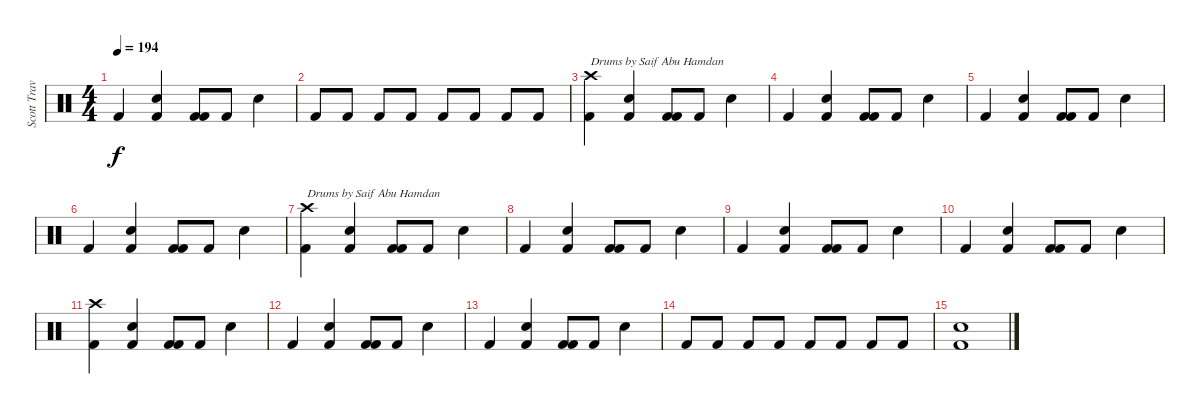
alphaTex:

\track ("Scott Travis" "Scott Trav") {instrument percussion}
\staff {score}
\articulation defaults
\ts (4 4)
\tempo 194
\clef neutral
\ks c "Kick (hit) 2".4{dy f}
("Kick (hit) 2" "Snare (hit) 2").4 ("Kick (hit) 2" "Kick (hit) 2").8 "Kick (hit) 2".8 "Snare (hit) 2".4 |
"Kick (hit) 2".8 "Kick (hit) 2".8 "Kick (hit) 2".8 "Kick (hit) 2".8 "Kick (hit) 2".8 "Kick (hit) 2".8 "Kick (hit) 2".8 "Kick (hit) 2".8 |
("Kick (hit) 2" "Crash high (hit)").4{txt "Drums by Saif Abu Hamdan"} ("Kick (hit) 2" "Snare (hit) 2").4 ("Kick (hit) 2" "Kick (hit) 2").8 "Kick (hit) 2".8 "Snare (hit) 2".4 |
"Kick (hit) 2".4 ("Kick (hit) 2" "Snare (hit) 2").4 ("Kick (hit) 2" "Kick (hit) 2").8 "Kick (hit) 2".8 "Snare (hit) 2".4 |
"Kick (hit) 2".4 ("Kick (hit) 2" "Snare (hit) 2").4 ("Kick (hit) 2" "Kick (hit) 2").8 "Kick (hit) 2".8 "Snare (hit) 2".4 |
"Kick (hit) 2".4 ("Kick (hit) 2" "Snare (hit) 2").4 ("Kick (hit) 2" "Kick (hit) 2").8 "Kick (hit) 2".8 "Snare (hit) 2".4 |
("Kick (hit) 2" "Crash high (hit)").4{txt "Drums by Saif Abu Hamdan"} ("Kick (hit) 2" "Snare (hit) 2").4 ("Kick (hit) 2" "Kick (hit) 2").8 "Kick (hit) 2".8 "Snare (hit) 2".4 |
"Kick (hit) 2".4 ("Kick (hit) 2" "Snare (hit) 2").4 ("Kick (hit) 2" "Kick (hit) 2").8 "Kick (hit) 2".8 "Snare (hit) 2".4 |
"Kick (hit) 2".4 ("Kick (hit) 2" "Snare (hit) 2").4 ("Kick (hit) 2" "Kick (hit) 2").8 "Kick (hit) 2".8 "Snare (hit) 2".4 |
"Kick (hit) 2".4 ("Kick (hit) 2" "Snare (hit) 2").4 ("Kick (hit) 2" "Kick (hit) 2").8 "Kick (hit) 2".8 "Snare (hit) 2".4 |
("Kick (hit) 2" "Crash high (hit)").4 ("Kick (hit) 2" "Snare (hit) 2").4 ("Kick (hit) 2" "Kick (hit) 2").8 "Kick (hit) 2".8 "Snare (hit) 2".4 |
"Kick (hit) 2".4 ("Kick (hit) 2" "Snare (hit) 2").4 ("Kick (hit) 2" "Kick (hit) 2").8 "Kick (hit) 2".8 "Snare (hit) 2".4 |
"Kick (hit) 2".4 ("Kick (hit) 2" "Snare (hit) 2").4 ("Kick (hit) 2" "Kick (hit) 2").8 "Kick (hit) 2".8 "Snare (hit) 2".4 |
"Kick (hit) 2".8 "Kick (hit) 2".8 "Kick (hit) 2".8 "Kick (hit) 2".8 "Kick (hit) 2".8 "Kick (hit) 2".8 "Kick (hit) 2".8 "Kick (hit) 2".8 |
("Kick (hit) 2" "Snare (hit) 2").1
